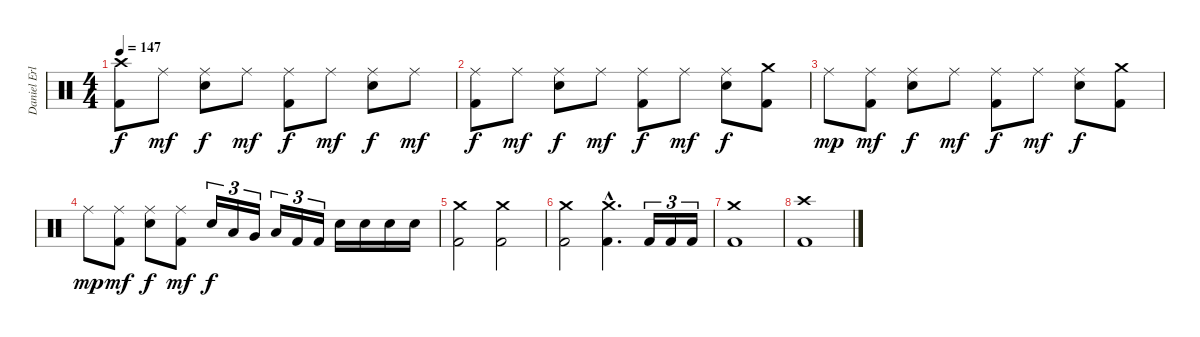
\track ("Daniel Erlandsson" "Daniel Erl") {instrument percussion}
\staff {score}
\articulation defaults
\ts (4 4)
\tempo 147
\clef neutral
\ks c
("Crash high (hit)" "Kick (hit) 2").8{dy f} "Ride (middle)".8{dy mf} ("Ride (middle)" "Electric Snare (hit)").8{dy f} "Ride (middle)".8{dy mf} ("Ride (middle)" "Kick (hit) 2").8{dy f} "Ride (middle)".8{dy mf} ("Ride (middle)" "Electric Snare (hit)").8{dy f} "Ride (middle)".8{dy mf} |
("Ride (middle)" "Kick (hit) 2").8{dy f} "Ride (middle)".8{dy mf} ("Ride (middle)" "Electric Snare (hit)").8{dy f} "Ride (middle)".8{dy mf} ("Ride (middle)" "Kick (hit) 2").8{dy f} "Ride (middle)".8{dy mf} ("Ride (middle)" "Electric Snare (hit)").8{dy f} ("Crash medium (hit)" "Kick (hit) 2").8 |
"Ride (middle)".8{dy mp} ("Ride (middle)" "Kick (hit) 2").8{dy mf} ("Ride (middle)" "Electric Snare (hit)").8{dy f} "Ride (middle)".8{dy mf} ("Ride (middle)" "Kick (hit) 2").8{dy f} "Ride (middle)".8{dy mf} ("Ride (middle)" "Electric Snare (hit)").8{dy f} ("Crash medium (hit)" "Kick (hit) 2").8 |
"Ride (middle)".8{dy mp} ("Ride (middle)" "Kick (hit) 2").8{dy mf} ("Ride (middle)" "Electric Snare (hit)").8{dy f} ("Ride (middle)" "Kick (hit) 2").8{dy mf} "Electric Snare (hit)".16{tu (3 2) dy f} "Low Tom (hit)".16{tu (3 2)} "Very Low Tom (hit)".16{tu (3 2)} "Low Floor Tom (hit)".16{tu (3 2)} "Kick (hit) 2".16{tu (3 2)} "Kick (hit) 2".16{tu (3 2)} "Electric Snare (hit)".16 "Electric Snare (hit)".16 "Electric Snare (hit)".16 "Electric Snare (hit)".16 |
("Crash medium (hit)" "Kick (hit) 2").2 ("Crash medium (hit)" "Kick (hit) 2").2 |
("Crash medium (hit)" "Kick (hit) 2").2 ("Crash medium (hit)"{hac} "Kick (hit) 2"{hac}).4{d} "Kick (hit) 2".16{tu (3 2)} "Kick (hit) 2".16{tu (3 2)} "Kick (hit) 2".16{tu (3 2)} |
("Crash medium (hit)" "Kick (hit) 2").1 |
("Crash high (hit)" "Kick (hit) 2").1
